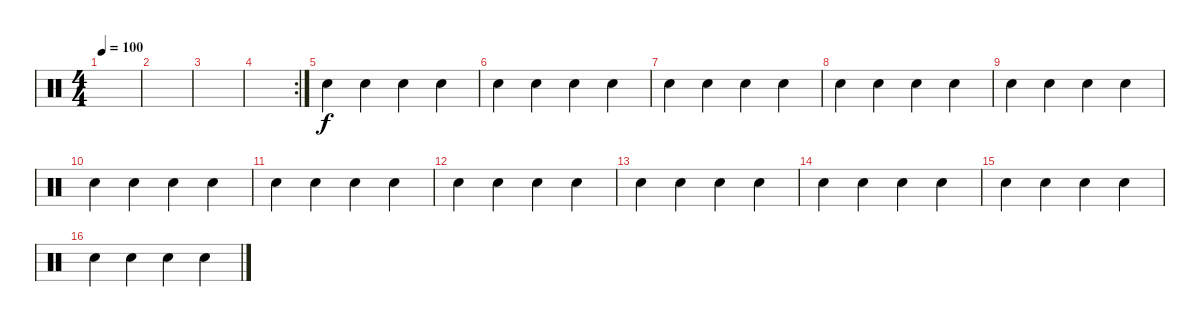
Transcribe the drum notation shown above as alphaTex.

\track "" {instrument percussion}
\staff {score}
\articulation defaults
\ts (4 4)
\tempo 100
\clef neutral
\ks c
|
|
|
\rc 2
|
"Snare (hit) 2".4 "Electric Snare (hit)".4 "Snare (hit) 2".4 "Electric Snare (hit)".4 |
"Snare (hit) 2".4 "Electric Snare (hit)".4 "Snare (hit) 2".4 "Electric Snare (hit)".4 |
"Snare (hit) 2".4 "Electric Snare (hit)".4 "Snare (hit) 2".4 "Electric Snare (hit)".4 |
"Snare (hit) 2".4 "Electric Snare (hit)".4 "Snare (hit) 2".4 "Electric Snare (hit)".4 |
"Snare (hit) 2".4 "Electric Snare (hit)".4 "Snare (hit) 2".4 "Electric Snare (hit)".4 |
"Snare (hit) 2".4 "Electric Snare (hit)".4 "Snare (hit) 2".4 "Electric Snare (hit)".4 |
"Snare (hit) 2".4 "Electric Snare (hit)".4 "Snare (hit) 2".4 "Electric Snare (hit)".4 |
"Snare (hit) 2".4 "Electric Snare (hit)".4 "Snare (hit) 2".4 "Electric Snare (hit)".4 |
"Snare (hit) 2".4 "Electric Snare (hit)".4 "Snare (hit) 2".4 "Electric Snare (hit)".4 |
"Snare (hit) 2".4 "Electric Snare (hit)".4 "Snare (hit) 2".4 "Electric Snare (hit)".4 |
"Snare (hit) 2".4 "Electric Snare (hit)".4 "Snare (hit) 2".4 "Electric Snare (hit)".4 |
"Snare (hit) 2".4 "Electric Snare (hit)".4 "Snare (hit) 2".4 "Electric Snare (hit)".4
